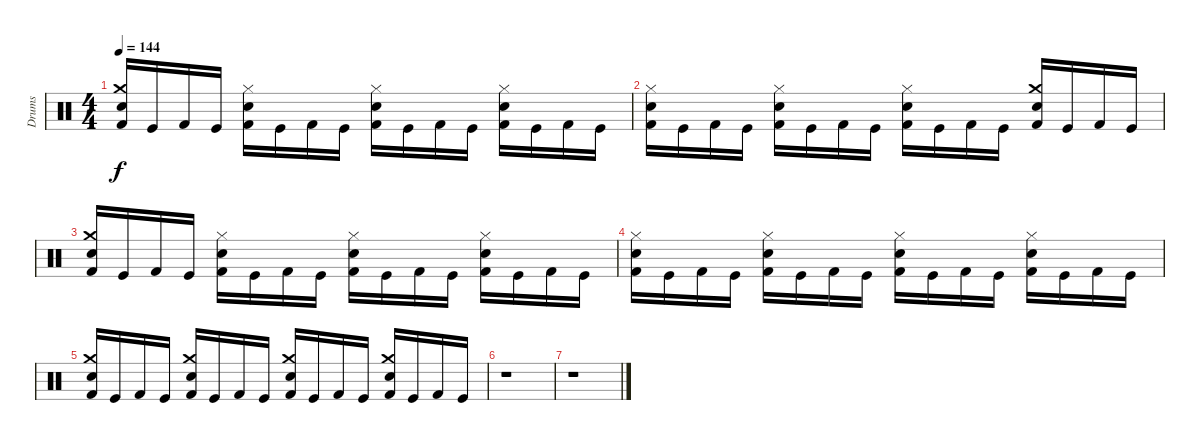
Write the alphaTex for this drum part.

\track ("Drums" "Drums") {instrument percussion}
\staff {score}
\articulation defaults
\ts (4 4)
\tempo 144
\clef neutral
\ks c
("Snare (hit) 2" "Crash medium (hit)" "Kick (hit) 2").16{dy f} "Kick (hit)".16 "Kick (hit) 2".16 "Kick (hit)".16 ("Hi-Hat (closed)" "Snare (hit) 2" "Kick (hit) 2").16 "Kick (hit)".16 "Kick (hit) 2".16 "Kick (hit)".16 ("Hi-Hat (closed)" "Snare (hit) 2" "Kick (hit) 2").16 "Kick (hit)".16 "Kick (hit) 2".16 "Kick (hit)".16 ("Hi-Hat (closed)" "Snare (hit) 2" "Kick (hit) 2").16 "Kick (hit)".16 "Kick (hit) 2".16 "Kick (hit)".16 |
("Snare (hit) 2" "Hi-Hat (closed)" "Kick (hit) 2").16 "Kick (hit)".16 "Kick (hit) 2".16 "Kick (hit)".16 ("Snare (hit) 2" "Hi-Hat (closed)" "Kick (hit) 2").16 "Kick (hit)".16 "Kick (hit) 2".16 "Kick (hit)".16 ("Snare (hit) 2" "Hi-Hat (closed)" "Kick (hit) 2").16 "Kick (hit)".16 "Kick (hit) 2".16 "Kick (hit)".16 ("Crash medium (hit)" "Snare (hit) 2" "Kick (hit) 2").16 "Kick (hit)".16 "Kick (hit) 2".16 "Kick (hit)".16 |
("Snare (hit) 2" "Crash medium (hit)" "Kick (hit) 2").16 "Kick (hit)".16 "Kick (hit) 2".16 "Kick (hit)".16 ("Hi-Hat (closed)" "Snare (hit) 2" "Kick (hit) 2").16 "Kick (hit)".16 "Kick (hit) 2".16 "Kick (hit)".16 ("Hi-Hat (closed)" "Snare (hit) 2" "Kick (hit) 2").16 "Kick (hit)".16 "Kick (hit) 2".16 "Kick (hit)".16 ("Hi-Hat (closed)" "Snare (hit) 2" "Kick (hit) 2").16 "Kick (hit)".16 "Kick (hit) 2".16 "Kick (hit)".16 |
("Snare (hit) 2" "Hi-Hat (closed)" "Kick (hit) 2").16 "Kick (hit)".16 "Kick (hit) 2".16 "Kick (hit)".16 ("Snare (hit) 2" "Hi-Hat (closed)" "Kick (hit) 2").16 "Kick (hit)".16 "Kick (hit) 2".16 "Kick (hit)".16 ("Snare (hit) 2" "Hi-Hat (closed)" "Kick (hit) 2").16 "Kick (hit)".16 "Kick (hit) 2".16 "Kick (hit)".16 ("Snare (hit) 2" "Hi-Hat (closed)" "Kick (hit) 2").16 "Kick (hit)".16 "Kick (hit) 2".16 "Kick (hit)".16 |
("Crash medium (hit)" "Snare (hit) 2" "Kick (hit) 2").16 "Kick (hit)".16 "Kick (hit) 2".16 "Kick (hit)".16 ("Crash medium (hit)" "Snare (hit) 2" "Kick (hit) 2").16 "Kick (hit)".16 "Kick (hit) 2".16 "Kick (hit)".16 ("Crash medium (hit)" "Snare (hit) 2" "Kick (hit) 2").16 "Kick (hit)".16 "Kick (hit) 2".16 "Kick (hit)".16 ("Crash medium (hit)" "Snare (hit) 2" "Kick (hit) 2").16 "Kick (hit)".16 "Kick (hit) 2".16 "Kick (hit)".16 |
r.1 |
r.1
